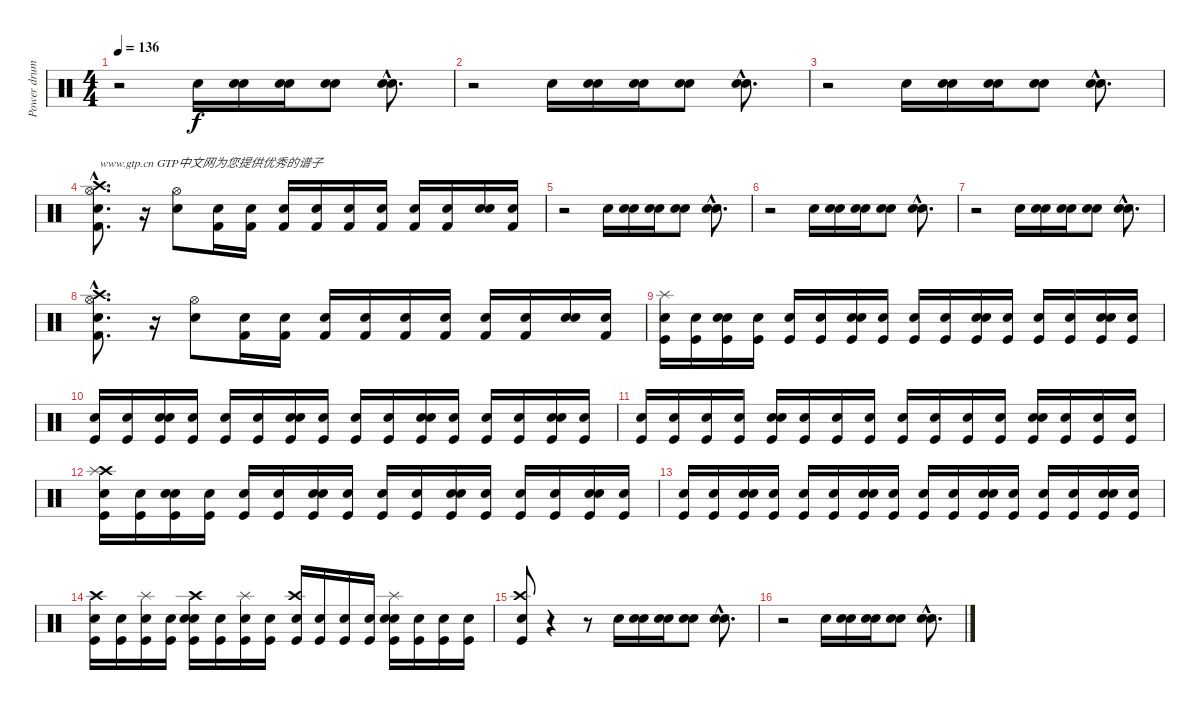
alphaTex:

\track ("Power drums" "Power drum") {instrument percussion}
\staff {score}
\articulation defaults
\ts (4 4)
\tempo 136
\clef neutral
\ks c
r.2{dy f} "Snare (hit) 2".16 ("Snare (hit)" "Snare (hit) 2").16 ("Snare (hit)" "Snare (hit) 2").16 ("Snare (hit)" "Snare (hit) 2").8 ("Snare (hit)"{hac} "Snare (hit) 2"{hac}).8{d} |
r.2 "Snare (hit) 2".16 ("Snare (hit)" "Snare (hit) 2").16 ("Snare (hit)" "Snare (hit) 2").16 ("Snare (hit)" "Snare (hit) 2").8 ("Snare (hit)"{hac} "Snare (hit) 2"{hac}).8{d} |
r.2 "Snare (hit) 2".16 ("Snare (hit)" "Snare (hit) 2").16 ("Snare (hit)" "Snare (hit) 2").16 ("Snare (hit)" "Snare (hit) 2").8 ("Snare (hit)"{hac} "Snare (hit) 2"{hac}).8{d} |
("Snare (hit)"{hac} "Kick (hit) 2"{hac} "Hi-Hat (open)"{hac} "Crash high (hit)"{hac}).8{d txt "www.gtp.cn GTP中文网为您提供优秀的谱子"} r.16 ("Snare (hit) 2" "Hi-Hat (open)").8 ("Snare (hit)" "Kick (hit) 2").16 ("Snare (hit)" "Kick (hit) 2").16 ("Snare (hit)" "Kick (hit) 2").16 ("Snare (hit)" "Kick (hit) 2").16 ("Snare (hit)" "Kick (hit) 2").16 ("Snare (hit)" "Kick (hit) 2").16 ("Snare (hit)" "Kick (hit) 2").16 ("Snare (hit)" "Kick (hit) 2").16 ("Snare (hit)" "Snare (hit) 2").16 ("Snare (hit)" "Kick (hit) 2").16 |
r.2 "Snare (hit) 2".16 ("Snare (hit)" "Snare (hit) 2").16 ("Snare (hit)" "Snare (hit) 2").16 ("Snare (hit)" "Snare (hit) 2").8 ("Snare (hit)"{hac} "Snare (hit) 2"{hac}).8{d} |
r.2 "Snare (hit) 2".16 ("Snare (hit)" "Snare (hit) 2").16 ("Snare (hit)" "Snare (hit) 2").16 ("Snare (hit)" "Snare (hit) 2").8 ("Snare (hit)"{hac} "Snare (hit) 2"{hac}).8{d} |
r.2 "Snare (hit) 2".16 ("Snare (hit)" "Snare (hit) 2").16 ("Snare (hit)" "Snare (hit) 2").16 ("Snare (hit)" "Snare (hit) 2").8 ("Snare (hit)"{hac} "Snare (hit) 2"{hac}).8{d} |
("Snare (hit)"{hac} "Kick (hit) 2"{hac} "Hi-Hat (open)"{hac} "Crash high (hit)"{hac}).8{d} r.16 ("Snare (hit) 2" "Hi-Hat (open)").8 ("Snare (hit)" "Kick (hit) 2").16 ("Snare (hit)" "Kick (hit) 2").16 ("Snare (hit)" "Kick (hit) 2").16 ("Snare (hit)" "Kick (hit) 2").16 ("Snare (hit)" "Kick (hit) 2").16 ("Snare (hit)" "Kick (hit) 2").16 ("Snare (hit)" "Kick (hit) 2").16 ("Snare (hit)" "Kick (hit) 2").16 ("Snare (hit)" "Snare (hit) 2").16 ("Snare (hit)" "Kick (hit) 2").16 |
("Snare (hit)" "Kick (hit)" "Splash (hit)").16 ("Snare (hit)" "Kick (hit)").16 ("Snare (hit)" "Kick (hit)" "Snare (hit) 2").16 ("Snare (hit)" "Kick (hit)").16 ("Snare (hit)" "Kick (hit)").16 ("Snare (hit)" "Kick (hit)").16 ("Snare (hit)" "Kick (hit)" "Snare (hit) 2").16 ("Snare (hit)" "Kick (hit)").16 ("Snare (hit)" "Kick (hit)").16 ("Snare (hit)" "Kick (hit)").16 ("Snare (hit)" "Kick (hit)" "Snare (hit) 2").16 ("Snare (hit)" "Kick (hit)").16 ("Snare (hit)" "Kick (hit)").16 ("Snare (hit)" "Kick (hit)").16 ("Snare (hit)" "Kick (hit)" "Snare (hit) 2").16 ("Snare (hit)" "Kick (hit)").16 |
("Snare (hit)" "Kick (hit)").16 ("Snare (hit)" "Kick (hit)").16 ("Snare (hit)" "Kick (hit)" "Snare (hit) 2").16 ("Snare (hit)" "Kick (hit)").16 ("Snare (hit)" "Kick (hit)").16 ("Snare (hit)" "Kick (hit)").16 ("Snare (hit)" "Kick (hit)" "Snare (hit) 2").16 ("Snare (hit)" "Kick (hit)").16 ("Snare (hit)" "Kick (hit)").16 ("Snare (hit)" "Kick (hit)").16 ("Snare (hit)" "Kick (hit)" "Snare (hit) 2").16 ("Snare (hit)" "Kick (hit)").16 ("Snare (hit)" "Kick (hit)").16 ("Snare (hit)" "Kick (hit)").16 ("Snare (hit)" "Kick (hit)" "Snare (hit) 2").16 ("Snare (hit)" "Kick (hit)").16 |
("Snare (hit)" "Kick (hit)").16 ("Snare (hit)" "Kick (hit)").16 ("Snare (hit)" "Kick (hit)").16 ("Snare (hit)" "Kick (hit)").16 ("Snare (hit)" "Kick (hit)" "Snare (hit) 2").16 ("Snare (hit)" "Kick (hit)").16 ("Snare (hit)" "Kick (hit)").16 ("Snare (hit)" "Kick (hit)").16 ("Snare (hit)" "Kick (hit)").16 ("Snare (hit)" "Kick (hit)").16 ("Snare (hit)" "Kick (hit)").16 ("Snare (hit)" "Kick (hit)").16 ("Snare (hit)" "Kick (hit)" "Snare (hit) 2").16 ("Snare (hit)" "Kick (hit)").16 ("Snare (hit)" "Kick (hit)").16 ("Snare (hit)" "Kick (hit)").16 |
("Snare (hit)" "Kick (hit)" "Crash high (hit)" "Splash (hit)").16 ("Snare (hit)" "Kick (hit)").16 ("Snare (hit)" "Kick (hit)" "Snare (hit) 2").16 ("Snare (hit)" "Kick (hit)").16 ("Snare (hit)" "Kick (hit)").16 ("Snare (hit)" "Kick (hit)").16 ("Snare (hit)" "Kick (hit)" "Snare (hit) 2").16 ("Snare (hit)" "Kick (hit)").16 ("Snare (hit)" "Kick (hit)").16 ("Snare (hit)" "Kick (hit)").16 ("Snare (hit)" "Kick (hit)" "Snare (hit) 2").16 ("Snare (hit)" "Kick (hit)").16 ("Snare (hit)" "Kick (hit)").16 ("Snare (hit)" "Kick (hit)").16 ("Snare (hit)" "Kick (hit)" "Snare (hit) 2").16 ("Snare (hit)" "Kick (hit)").16 |
("Snare (hit)" "Kick (hit)").16 ("Snare (hit)" "Kick (hit)").16 ("Snare (hit)" "Kick (hit)" "Snare (hit) 2").16 ("Snare (hit)" "Kick (hit)").16 ("Snare (hit)" "Kick (hit)").16 ("Snare (hit)" "Kick (hit)").16 ("Snare (hit)" "Kick (hit)" "Snare (hit) 2").16 ("Snare (hit)" "Kick (hit)").16 ("Snare (hit)" "Kick (hit)").16 ("Snare (hit)" "Kick (hit)").16 ("Snare (hit)" "Kick (hit)" "Snare (hit) 2").16 ("Snare (hit)" "Kick (hit)").16 ("Snare (hit)" "Kick (hit)").16 ("Snare (hit)" "Kick (hit)").16 ("Snare (hit)" "Kick (hit)" "Snare (hit) 2").16 ("Snare (hit)" "Kick (hit)").16 |
("Snare (hit)" "Kick (hit)" "Crash high (hit)").16 ("Snare (hit)" "Kick (hit)").16 ("Snare (hit)" "Kick (hit)" "Splash (hit)").16 ("Snare (hit)" "Kick (hit)").16 ("Snare (hit)" "Kick (hit)" "Snare (hit) 2" "Crash high (hit)").16 ("Snare (hit)" "Kick (hit)").16 ("Snare (hit)" "Kick (hit)" "Splash (hit)").16 ("Snare (hit)" "Kick (hit)").16 ("Snare (hit)" "Kick (hit)" "Crash high (hit)").16 ("Snare (hit)" "Kick (hit)").16 ("Snare (hit)" "Kick (hit)").16 ("Snare (hit)" "Kick (hit)").16 ("Snare (hit)" "Kick (hit)" "Snare (hit) 2" "Splash (hit)").16 ("Snare (hit)" "Kick (hit)").16 ("Snare (hit)" "Kick (hit)").16 ("Snare (hit)" "Kick (hit)").16 |
("Snare (hit)" "Kick (hit)" "Crash high (hit)").8 r.4 r.8 "Snare (hit) 2".16 ("Snare (hit)" "Snare (hit) 2").16 ("Snare (hit)" "Snare (hit) 2").16 ("Snare (hit)" "Snare (hit) 2").8 ("Snare (hit)"{hac} "Snare (hit) 2"{hac}).8{d} |
r.2 "Snare (hit) 2".16 ("Snare (hit)" "Snare (hit) 2").16 ("Snare (hit)" "Snare (hit) 2").16 ("Snare (hit)" "Snare (hit) 2").8 ("Snare (hit)"{hac} "Snare (hit) 2"{hac}).8{d}
